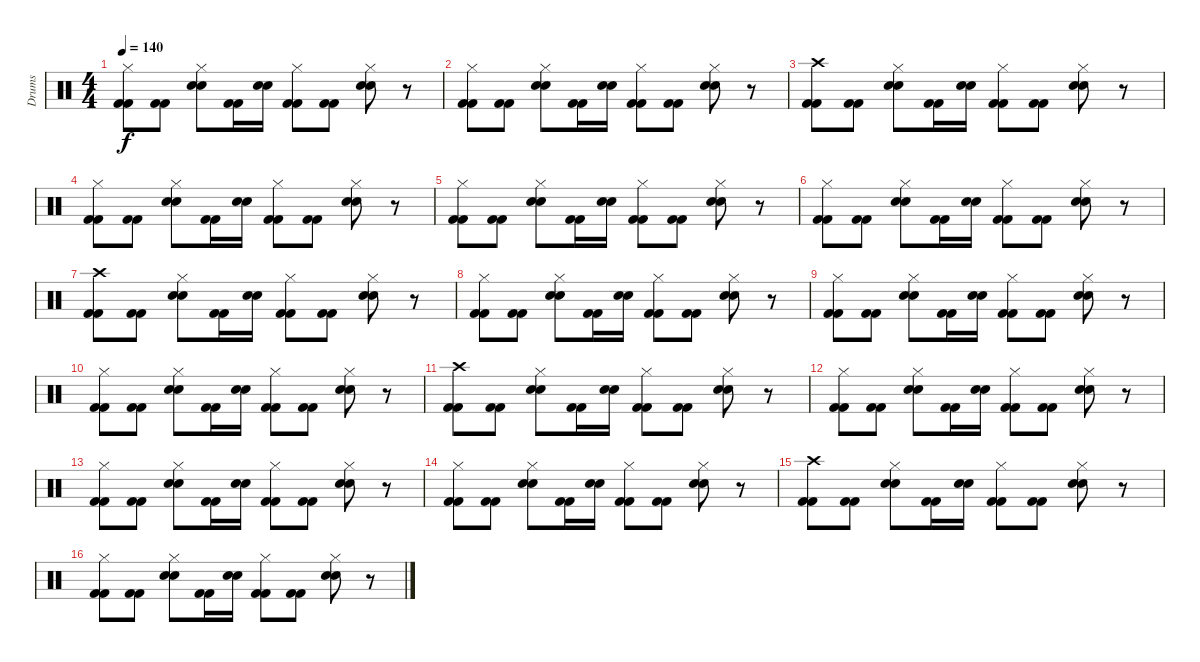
\track ("Drums" "Drums") {instrument percussion}
\staff {score}
\articulation defaults
\ts (4 4)
\tempo 140
\clef neutral
\ks c
("Hi-Hat (closed)" "Kick (hit) 2" "Kick (hit) 2").8{dy f} ("Kick (hit) 2" "Kick (hit) 2").8 ("Hi-Hat (closed)" "Hand Clap (hit)" "Snare (hit) 2").8 ("Kick (hit) 2" "Kick (hit) 2").16 ("Hand Clap (hit)" "Snare (hit) 2").16 ("Hi-Hat (closed)" "Kick (hit) 2" "Kick (hit) 2").8 ("Kick (hit) 2" "Kick (hit) 2").8 ("Hi-Hat (closed)" "Hand Clap (hit)" "Snare (hit) 2").8 r.8 |
("Hi-Hat (closed)" "Kick (hit) 2" "Kick (hit) 2").8 ("Kick (hit) 2" "Kick (hit) 2").8 ("Hi-Hat (closed)" "Hand Clap (hit)" "Snare (hit) 2").8 ("Kick (hit) 2" "Kick (hit) 2").16 ("Hand Clap (hit)" "Snare (hit) 2").16 ("Hi-Hat (closed)" "Kick (hit) 2" "Kick (hit) 2").8 ("Kick (hit) 2" "Kick (hit) 2").8 ("Hi-Hat (closed)" "Hand Clap (hit)" "Snare (hit) 2").8 r.8 |
("Crash high (hit)" "Kick (hit) 2" "Kick (hit) 2").8{volume 11} ("Kick (hit) 2" "Kick (hit) 2").8 ("Hi-Hat (closed)" "Hand Clap (hit)" "Snare (hit) 2").8 ("Kick (hit) 2" "Kick (hit) 2").16 ("Hand Clap (hit)" "Snare (hit) 2").16 ("Hi-Hat (closed)" "Kick (hit) 2" "Kick (hit) 2").8 ("Kick (hit) 2" "Kick (hit) 2").8 ("Hi-Hat (closed)" "Hand Clap (hit)" "Snare (hit) 2").8 r.8 |
("Hi-Hat (closed)" "Kick (hit) 2" "Kick (hit) 2").8 ("Kick (hit) 2" "Kick (hit) 2").8 ("Hi-Hat (closed)" "Hand Clap (hit)" "Snare (hit) 2").8 ("Kick (hit) 2" "Kick (hit) 2").16 ("Hand Clap (hit)" "Snare (hit) 2").16 ("Hi-Hat (closed)" "Kick (hit) 2" "Kick (hit) 2").8 ("Kick (hit) 2" "Kick (hit) 2").8 ("Hi-Hat (closed)" "Hand Clap (hit)" "Snare (hit) 2").8 r.8 |
("Hi-Hat (closed)" "Kick (hit) 2" "Kick (hit) 2").8 ("Kick (hit) 2" "Kick (hit) 2").8 ("Hi-Hat (closed)" "Hand Clap (hit)" "Snare (hit) 2").8 ("Kick (hit) 2" "Kick (hit) 2").16 ("Hand Clap (hit)" "Snare (hit) 2").16 ("Hi-Hat (closed)" "Kick (hit) 2" "Kick (hit) 2").8 ("Kick (hit) 2" "Kick (hit) 2").8 ("Hi-Hat (closed)" "Hand Clap (hit)" "Snare (hit) 2").8 r.8 |
("Hi-Hat (closed)" "Kick (hit) 2" "Kick (hit) 2").8 ("Kick (hit) 2" "Kick (hit) 2").8 ("Hi-Hat (closed)" "Hand Clap (hit)" "Snare (hit) 2").8 ("Kick (hit) 2" "Kick (hit) 2").16 ("Hand Clap (hit)" "Snare (hit) 2").16 ("Hi-Hat (closed)" "Kick (hit) 2" "Kick (hit) 2").8 ("Kick (hit) 2" "Kick (hit) 2").8 ("Hi-Hat (closed)" "Hand Clap (hit)" "Snare (hit) 2").8 r.8 |
("Crash high (hit)" "Kick (hit) 2" "Kick (hit) 2").8 ("Kick (hit) 2" "Kick (hit) 2").8 ("Hi-Hat (closed)" "Hand Clap (hit)" "Snare (hit) 2").8 ("Kick (hit) 2" "Kick (hit) 2").16 ("Hand Clap (hit)" "Snare (hit) 2").16 ("Hi-Hat (closed)" "Kick (hit) 2" "Kick (hit) 2").8 ("Kick (hit) 2" "Kick (hit) 2").8 ("Hi-Hat (closed)" "Hand Clap (hit)" "Snare (hit) 2").8 r.8 |
("Hi-Hat (closed)" "Kick (hit) 2" "Kick (hit) 2").8 ("Kick (hit) 2" "Kick (hit) 2").8 ("Hi-Hat (closed)" "Hand Clap (hit)" "Snare (hit) 2").8 ("Kick (hit) 2" "Kick (hit) 2").16 ("Hand Clap (hit)" "Snare (hit) 2").16 ("Hi-Hat (closed)" "Kick (hit) 2" "Kick (hit) 2").8 ("Kick (hit) 2" "Kick (hit) 2").8 ("Hi-Hat (closed)" "Hand Clap (hit)" "Snare (hit) 2").8 r.8 |
("Hi-Hat (closed)" "Kick (hit) 2" "Kick (hit) 2").8 ("Kick (hit) 2" "Kick (hit) 2").8 ("Hi-Hat (closed)" "Hand Clap (hit)" "Snare (hit) 2").8 ("Kick (hit) 2" "Kick (hit) 2").16 ("Hand Clap (hit)" "Snare (hit) 2").16 ("Hi-Hat (closed)" "Kick (hit) 2" "Kick (hit) 2").8 ("Kick (hit) 2" "Kick (hit) 2").8 ("Hi-Hat (closed)" "Hand Clap (hit)" "Snare (hit) 2").8 r.8 |
("Hi-Hat (closed)" "Kick (hit) 2" "Kick (hit) 2").8 ("Kick (hit) 2" "Kick (hit) 2").8 ("Hi-Hat (closed)" "Hand Clap (hit)" "Snare (hit) 2").8 ("Kick (hit) 2" "Kick (hit) 2").16 ("Hand Clap (hit)" "Snare (hit) 2").16 ("Hi-Hat (closed)" "Kick (hit) 2" "Kick (hit) 2").8 ("Kick (hit) 2" "Kick (hit) 2").8 ("Hi-Hat (closed)" "Hand Clap (hit)" "Snare (hit) 2").8 r.8 |
("Crash high (hit)" "Kick (hit) 2" "Kick (hit) 2").8 ("Kick (hit) 2" "Kick (hit) 2").8 ("Hi-Hat (closed)" "Hand Clap (hit)" "Snare (hit) 2").8 ("Kick (hit) 2" "Kick (hit) 2").16 ("Hand Clap (hit)" "Snare (hit) 2").16 ("Hi-Hat (closed)" "Kick (hit) 2" "Kick (hit) 2").8 ("Kick (hit) 2" "Kick (hit) 2").8 ("Hi-Hat (closed)" "Hand Clap (hit)" "Snare (hit) 2").8 r.8 |
("Hi-Hat (closed)" "Kick (hit) 2" "Kick (hit) 2").8 ("Kick (hit) 2" "Kick (hit) 2").8 ("Hi-Hat (closed)" "Hand Clap (hit)" "Snare (hit) 2").8 ("Kick (hit) 2" "Kick (hit) 2").16 ("Hand Clap (hit)" "Snare (hit) 2").16 ("Hi-Hat (closed)" "Kick (hit) 2" "Kick (hit) 2").8 ("Kick (hit) 2" "Kick (hit) 2").8 ("Hi-Hat (closed)" "Hand Clap (hit)" "Snare (hit) 2").8 r.8 |
("Hi-Hat (closed)" "Kick (hit) 2" "Kick (hit) 2").8 ("Kick (hit) 2" "Kick (hit) 2").8 ("Hi-Hat (closed)" "Hand Clap (hit)" "Snare (hit) 2").8 ("Kick (hit) 2" "Kick (hit) 2").16 ("Hand Clap (hit)" "Snare (hit) 2").16 ("Hi-Hat (closed)" "Kick (hit) 2" "Kick (hit) 2").8 ("Kick (hit) 2" "Kick (hit) 2").8 ("Hi-Hat (closed)" "Hand Clap (hit)" "Snare (hit) 2").8 r.8 |
("Hi-Hat (closed)" "Kick (hit) 2" "Kick (hit) 2").8 ("Kick (hit) 2" "Kick (hit) 2").8 ("Hi-Hat (closed)" "Hand Clap (hit)" "Snare (hit) 2").8 ("Kick (hit) 2" "Kick (hit) 2").16 ("Hand Clap (hit)" "Snare (hit) 2").16 ("Hi-Hat (closed)" "Kick (hit) 2" "Kick (hit) 2").8 ("Kick (hit) 2" "Kick (hit) 2").8 ("Hi-Hat (closed)" "Hand Clap (hit)" "Snare (hit) 2").8 r.8 |
("Crash high (hit)" "Kick (hit) 2" "Kick (hit) 2").8 ("Kick (hit) 2" "Kick (hit) 2").8 ("Hi-Hat (closed)" "Hand Clap (hit)" "Snare (hit) 2").8 ("Kick (hit) 2" "Kick (hit) 2").16 ("Hand Clap (hit)" "Snare (hit) 2").16 ("Hi-Hat (closed)" "Kick (hit) 2" "Kick (hit) 2").8 ("Kick (hit) 2" "Kick (hit) 2").8 ("Hi-Hat (closed)" "Hand Clap (hit)" "Snare (hit) 2").8 r.8 |
("Hi-Hat (closed)" "Kick (hit) 2" "Kick (hit) 2").8 ("Kick (hit) 2" "Kick (hit) 2").8 ("Hi-Hat (closed)" "Hand Clap (hit)" "Snare (hit) 2").8 ("Kick (hit) 2" "Kick (hit) 2").16 ("Hand Clap (hit)" "Snare (hit) 2").16 ("Hi-Hat (closed)" "Kick (hit) 2" "Kick (hit) 2").8 ("Kick (hit) 2" "Kick (hit) 2").8 ("Hi-Hat (closed)" "Hand Clap (hit)" "Snare (hit) 2").8 r.8
